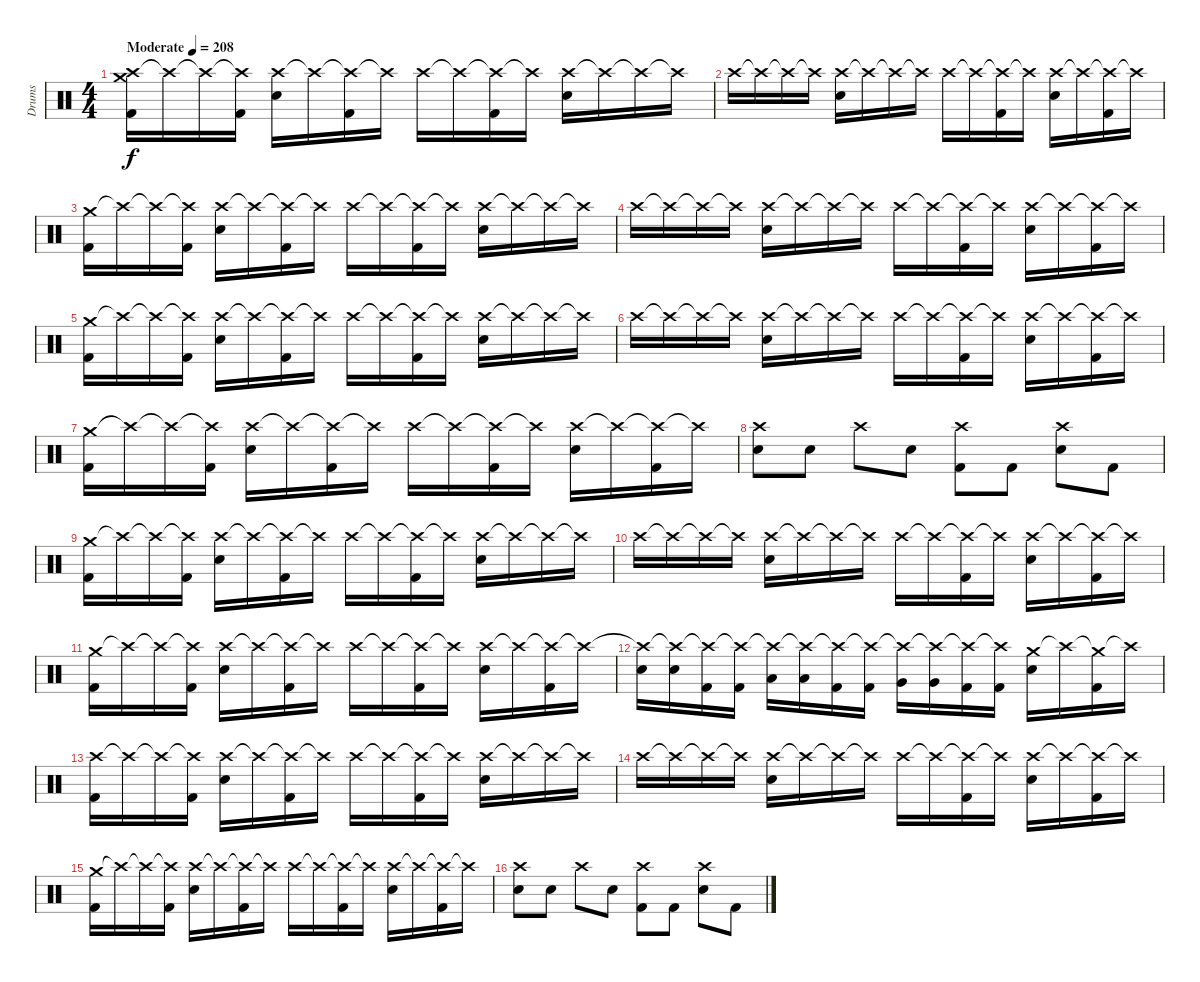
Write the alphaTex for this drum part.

\track ("Drums" "Drums") {instrument percussion}
\staff {score}
\articulation defaults
\ts (4 4)
\tempo (208 "Moderate")
\clef neutral
\ks c
("Crash high (hit)" "Crash medium (hit)" "Kick (hit) 2").16{dy f} "Crash high (hit)"{t}.16 "Crash high (hit)"{t}.16 ("Crash high (hit)"{t} "Kick (hit) 2").16 ("Crash high (hit)" "Electric Snare (hit)").16 "Crash high (hit)"{t}.16 ("Crash high (hit)"{t} "Kick (hit) 2").16 "Crash high (hit)"{t}.16 "Crash high (hit)".16 "Crash high (hit)"{t}.16 ("Crash high (hit)"{t} "Kick (hit) 2").16 "Crash high (hit)"{t}.16 ("Crash high (hit)" "Electric Snare (hit)").16 "Crash high (hit)"{t}.16 "Crash high (hit)"{t}.16 "Crash high (hit)"{t}.16 |
"Crash high (hit)".16 "Crash high (hit)"{t}.16 "Crash high (hit)"{t}.16 "Crash high (hit)"{t}.16 ("Crash high (hit)" "Electric Snare (hit)").16 "Crash high (hit)"{t}.16 "Crash high (hit)"{t}.16 "Crash high (hit)"{t}.16 "Crash high (hit)".16 "Crash high (hit)"{t}.16 ("Crash high (hit)"{t} "Kick (hit) 2").16 "Crash high (hit)"{t}.16 ("Crash high (hit)" "Electric Snare (hit)").16 "Crash high (hit)"{t}.16 ("Crash high (hit)"{t} "Kick (hit) 2").16 "Crash high (hit)"{t}.16 |
("Crash medium (hit)" "Kick (hit) 2").16 "Crash high (hit)"{t}.16 "Crash high (hit)"{t}.16 ("Crash high (hit)"{t} "Kick (hit) 2").16 ("Crash high (hit)" "Electric Snare (hit)").16 "Crash high (hit)"{t}.16 ("Crash high (hit)"{t} "Kick (hit) 2").16 "Crash high (hit)"{t}.16 "Crash high (hit)".16 "Crash high (hit)"{t}.16 ("Crash high (hit)"{t} "Kick (hit) 2").16 "Crash high (hit)"{t}.16 ("Crash high (hit)" "Electric Snare (hit)").16 "Crash high (hit)"{t}.16 "Crash high (hit)"{t}.16 "Crash high (hit)"{t}.16 |
"Crash high (hit)".16 "Crash high (hit)"{t}.16 "Crash high (hit)"{t}.16 "Crash high (hit)"{t}.16 ("Crash high (hit)" "Electric Snare (hit)").16 "Crash high (hit)"{t}.16 "Crash high (hit)"{t}.16 "Crash high (hit)"{t}.16 "Crash high (hit)".16 "Crash high (hit)"{t}.16 ("Crash high (hit)"{t} "Kick (hit) 2").16 "Crash high (hit)"{t}.16 ("Crash high (hit)" "Electric Snare (hit)").16 "Crash high (hit)"{t}.16 ("Crash high (hit)"{t} "Kick (hit) 2").16 "Crash high (hit)"{t}.16 |
("Crash medium (hit)" "Kick (hit) 2").16 "Crash high (hit)"{t}.16 "Crash high (hit)"{t}.16 ("Crash high (hit)"{t} "Kick (hit) 2").16 ("Crash high (hit)" "Electric Snare (hit)").16 "Crash high (hit)"{t}.16 ("Crash high (hit)"{t} "Kick (hit) 2").16 "Crash high (hit)"{t}.16 "Crash high (hit)".16 "Crash high (hit)"{t}.16 ("Crash high (hit)"{t} "Kick (hit) 2").16 "Crash high (hit)"{t}.16 ("Crash high (hit)" "Electric Snare (hit)").16 "Crash high (hit)"{t}.16 "Crash high (hit)"{t}.16 "Crash high (hit)"{t}.16 |
"Crash high (hit)".16 "Crash high (hit)"{t}.16 "Crash high (hit)"{t}.16 "Crash high (hit)"{t}.16 ("Crash high (hit)" "Electric Snare (hit)").16 "Crash high (hit)"{t}.16 "Crash high (hit)"{t}.16 "Crash high (hit)"{t}.16 "Crash high (hit)".16 "Crash high (hit)"{t}.16 ("Crash high (hit)"{t} "Kick (hit) 2").16 "Crash high (hit)"{t}.16 ("Crash high (hit)" "Electric Snare (hit)").16 "Crash high (hit)"{t}.16 ("Crash high (hit)"{t} "Kick (hit) 2").16 "Crash high (hit)"{t}.16 |
("Crash medium (hit)" "Kick (hit) 2").16 "Crash high (hit)"{t}.16 "Crash high (hit)"{t}.16 ("Crash high (hit)"{t} "Kick (hit) 2").16 ("Crash high (hit)" "Electric Snare (hit)").16 "Crash high (hit)"{t}.16 ("Crash high (hit)"{t} "Kick (hit) 2").16 "Crash high (hit)"{t}.16 "Crash high (hit)".16 "Crash high (hit)"{t}.16 ("Crash high (hit)"{t} "Kick (hit) 2").16 "Crash high (hit)"{t}.16 ("Crash high (hit)" "Electric Snare (hit)").16 "Crash high (hit)"{t}.16 ("Crash high (hit)"{t} "Kick (hit) 2").16 "Crash high (hit)"{t}.16 |
("Crash high (hit)" "Electric Snare (hit)").8 "Electric Snare (hit)".8 "Crash high (hit)".8 "Electric Snare (hit)".8 ("Crash high (hit)" "Kick (hit) 2").8 "Kick (hit) 2".8 ("Crash high (hit)" "Electric Snare (hit)").8 "Kick (hit) 2".8 |
("Crash medium (hit)" "Kick (hit) 2").16 "Crash high (hit)"{t}.16 "Crash high (hit)"{t}.16 ("Crash high (hit)"{t} "Kick (hit) 2").16 ("Crash high (hit)" "Electric Snare (hit)").16 "Crash high (hit)"{t}.16 ("Crash high (hit)"{t} "Kick (hit) 2").16 "Crash high (hit)"{t}.16 "Crash high (hit)".16 "Crash high (hit)"{t}.16 ("Crash high (hit)"{t} "Kick (hit) 2").16 "Crash high (hit)"{t}.16 ("Crash high (hit)" "Electric Snare (hit)").16 "Crash high (hit)"{t}.16 "Crash high (hit)"{t}.16 "Crash high (hit)"{t}.16 |
"Crash high (hit)".16 "Crash high (hit)"{t}.16 "Crash high (hit)"{t}.16 "Crash high (hit)"{t}.16 ("Crash high (hit)" "Electric Snare (hit)").16 "Crash high (hit)"{t}.16 "Crash high (hit)"{t}.16 "Crash high (hit)"{t}.16 "Crash high (hit)".16 "Crash high (hit)"{t}.16 ("Crash high (hit)"{t} "Kick (hit) 2").16 "Crash high (hit)"{t}.16 ("Crash high (hit)" "Electric Snare (hit)").16 "Crash high (hit)"{t}.16 ("Crash high (hit)"{t} "Kick (hit) 2").16 "Crash high (hit)"{t}.16 |
("Crash medium (hit)" "Kick (hit) 2").16 "Crash high (hit)"{t}.16 "Crash high (hit)"{t}.16 ("Crash high (hit)"{t} "Kick (hit) 2").16 ("Crash high (hit)" "Electric Snare (hit)").16 "Crash high (hit)"{t}.16 ("Crash high (hit)"{t} "Kick (hit) 2").16 "Crash high (hit)"{t}.16 "Crash high (hit)".16 "Crash high (hit)"{t}.16 ("Crash high (hit)"{t} "Kick (hit) 2").16 "Crash high (hit)"{t}.16 ("Crash high (hit)" "Electric Snare (hit)").16 "Crash high (hit)"{t}.16 ("Crash high (hit)"{t} "Kick (hit) 2").16 "Crash high (hit)"{t}.16 |
("Crash high (hit)"{t} "Electric Snare (hit)").16 ("Crash high (hit)"{t} "Electric Snare (hit)").16 ("Crash high (hit)"{t} "Kick (hit) 2").16 ("Crash high (hit)"{t} "Kick (hit) 2").16 ("Crash high (hit)"{t} "Low Tom (hit)").16 ("Crash high (hit)"{t} "Low Tom (hit)").16 ("Crash high (hit)"{t} "Kick (hit) 2").16 ("Crash high (hit)"{t} "Kick (hit) 2").16 ("Crash high (hit)"{t} "Very Low Tom (hit)").16 ("Crash high (hit)"{t} "Very Low Tom (hit)").16 ("Crash high (hit)"{t} "Kick (hit) 2").16 ("Crash high (hit)"{t} "Kick (hit) 2").16 ("Crash medium (hit)" "Electric Snare (hit)").16 "Crash high (hit)"{t}.16 ("Crash medium (hit)"{t} "Kick (hit) 2").16 "Crash high (hit)"{t}.16 |
("Crash high (hit)" "Kick (hit) 2").16 "Crash high (hit)"{t}.16 "Crash high (hit)"{t}.16 ("Crash high (hit)"{t} "Kick (hit) 2").16 ("Crash high (hit)" "Electric Snare (hit)").16 "Crash high (hit)"{t}.16 ("Crash high (hit)"{t} "Kick (hit) 2").16 "Crash high (hit)"{t}.16 "Crash high (hit)".16 "Crash high (hit)"{t}.16 ("Crash high (hit)"{t} "Kick (hit) 2").16 "Crash high (hit)"{t}.16 ("Crash high (hit)" "Electric Snare (hit)").16 "Crash high (hit)"{t}.16 "Crash high (hit)"{t}.16 "Crash high (hit)"{t}.16 |
"Crash high (hit)".16 "Crash high (hit)"{t}.16 "Crash high (hit)"{t}.16 "Crash high (hit)"{t}.16 ("Crash high (hit)" "Electric Snare (hit)").16 "Crash high (hit)"{t}.16 "Crash high (hit)"{t}.16 "Crash high (hit)"{t}.16 "Crash high (hit)".16 "Crash high (hit)"{t}.16 ("Crash high (hit)"{t} "Kick (hit) 2").16 "Crash high (hit)"{t}.16 ("Crash high (hit)" "Electric Snare (hit)").16 "Crash high (hit)"{t}.16 ("Crash high (hit)"{t} "Kick (hit) 2").16 "Crash high (hit)"{t}.16 |
("Crash medium (hit)" "Kick (hit) 2").16 "Crash high (hit)"{t}.16 "Crash high (hit)"{t}.16 ("Crash high (hit)"{t} "Kick (hit) 2").16 ("Crash high (hit)" "Electric Snare (hit)").16 "Crash high (hit)"{t}.16 ("Crash high (hit)"{t} "Kick (hit) 2").16 "Crash high (hit)"{t}.16 "Crash high (hit)".16 "Crash high (hit)"{t}.16 ("Crash high (hit)"{t} "Kick (hit) 2").16 "Crash high (hit)"{t}.16 ("Crash high (hit)" "Electric Snare (hit)").16 "Crash high (hit)"{t}.16 ("Crash high (hit)"{t} "Kick (hit) 2").16 "Crash high (hit)"{t}.16 |
("Crash high (hit)" "Electric Snare (hit)").8 "Electric Snare (hit)".8 "Crash high (hit)".8 "Electric Snare (hit)".8 ("Crash high (hit)" "Kick (hit) 2").8 "Kick (hit) 2".8 ("Crash high (hit)" "Electric Snare (hit)").8 "Kick (hit) 2".8
